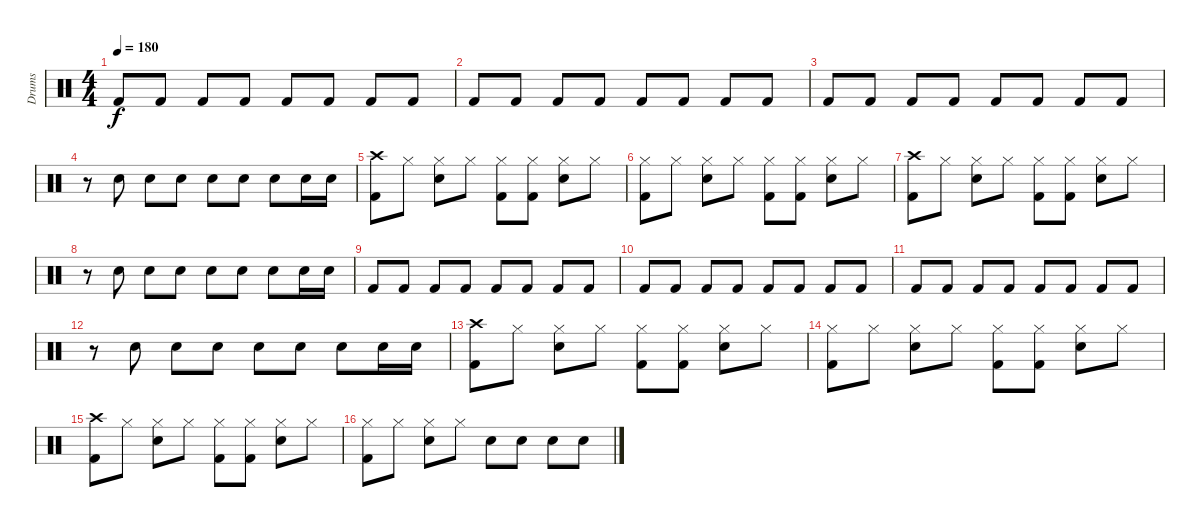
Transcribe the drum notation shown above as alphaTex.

\track ("Drums" "Drums") {instrument percussion}
\staff {score}
\articulation defaults
\ts (4 4)
\tempo 180
\clef neutral
\ks c "Kick (hit) 2".8{dy f} "Kick (hit) 2".8 "Kick (hit) 2".8 "Kick (hit) 2".8 "Kick (hit) 2".8 "Kick (hit) 2".8 "Kick (hit) 2".8 "Kick (hit) 2".8
|
"Kick (hit) 2".8 "Kick (hit) 2".8 "Kick (hit) 2".8 "Kick (hit) 2".8 "Kick (hit) 2".8 "Kick (hit) 2".8 "Kick (hit) 2".8 "Kick (hit) 2".8 |
"Kick (hit) 2".8 "Kick (hit) 2".8 "Kick (hit) 2".8 "Kick (hit) 2".8 "Kick (hit) 2".8 "Kick (hit) 2".8 "Kick (hit) 2".8 "Kick (hit) 2".8 |
r.8 "Snare (hit) 2".8 "Snare (hit) 2".8 "Snare (hit) 2".8 "Snare (hit) 2".8 "Snare (hit) 2".8 "Snare (hit) 2".8 "Snare (hit) 2".16 "Snare (hit) 2".16 |
("Crash high (hit)" "Kick (hit) 2").8 "Hi-Hat (closed)".8 ("Hi-Hat (closed)" "Snare (hit) 2").8 "Hi-Hat (closed)".8 ("Hi-Hat (closed)" "Kick (hit) 2").8 ("Hi-Hat (closed)" "Kick (hit) 2").8 ("Hi-Hat (closed)" "Snare (hit) 2").8 "Hi-Hat (closed)".8 |
("Hi-Hat (closed)" "Kick (hit) 2").8 "Hi-Hat (closed)".8 ("Hi-Hat (closed)" "Snare (hit) 2").8 "Hi-Hat (closed)".8 ("Hi-Hat (closed)" "Kick (hit) 2").8 ("Hi-Hat (closed)" "Kick (hit) 2").8 ("Hi-Hat (closed)" "Snare (hit) 2").8 "Hi-Hat (closed)".8 |
("Crash high (hit)" "Kick (hit) 2").8 "Hi-Hat (closed)".8 ("Hi-Hat (closed)" "Snare (hit) 2").8 "Hi-Hat (closed)".8 ("Hi-Hat (closed)" "Kick (hit) 2").8 ("Hi-Hat (closed)" "Kick (hit) 2").8 ("Hi-Hat (closed)" "Snare (hit) 2").8 "Hi-Hat (closed)".8 |
r.8 "Snare (hit) 2".8 "Snare (hit) 2".8 "Snare (hit) 2".8 "Snare (hit) 2".8 "Snare (hit) 2".8 "Snare (hit) 2".8 "Snare (hit) 2".16 "Snare (hit) 2".16 |
"Kick (hit) 2".8 "Kick (hit) 2".8 "Kick (hit) 2".8 "Kick (hit) 2".8 "Kick (hit) 2".8 "Kick (hit) 2".8 "Kick (hit) 2".8 "Kick (hit) 2".8 |
"Kick (hit) 2".8 "Kick (hit) 2".8 "Kick (hit) 2".8 "Kick (hit) 2".8 "Kick (hit) 2".8 "Kick (hit) 2".8 "Kick (hit) 2".8 "Kick (hit) 2".8 |
"Kick (hit) 2".8 "Kick (hit) 2".8 "Kick (hit) 2".8 "Kick (hit) 2".8 "Kick (hit) 2".8 "Kick (hit) 2".8 "Kick (hit) 2".8 "Kick (hit) 2".8 |
r.8 "Snare (hit) 2".8 "Snare (hit) 2".8 "Snare (hit) 2".8 "Snare (hit) 2".8 "Snare (hit) 2".8 "Snare (hit) 2".8 "Snare (hit) 2".16 "Snare (hit) 2".16 |
("Crash high (hit)" "Kick (hit) 2").8 "Hi-Hat (closed)".8 ("Hi-Hat (closed)" "Snare (hit) 2").8 "Hi-Hat (closed)".8 ("Hi-Hat (closed)" "Kick (hit) 2").8 ("Hi-Hat (closed)" "Kick (hit) 2").8 ("Hi-Hat (closed)" "Snare (hit) 2").8 "Hi-Hat (closed)".8 |
("Hi-Hat (closed)" "Kick (hit) 2").8 "Hi-Hat (closed)".8 ("Hi-Hat (closed)" "Snare (hit) 2").8 "Hi-Hat (closed)".8 ("Hi-Hat (closed)" "Kick (hit) 2").8 ("Hi-Hat (closed)" "Kick (hit) 2").8 ("Hi-Hat (closed)" "Snare (hit) 2").8 "Hi-Hat (closed)".8 |
("Crash high (hit)" "Kick (hit) 2").8 "Hi-Hat (closed)".8 ("Hi-Hat (closed)" "Snare (hit) 2").8 "Hi-Hat (closed)".8 ("Hi-Hat (closed)" "Kick (hit) 2").8 ("Hi-Hat (closed)" "Kick (hit) 2").8 ("Hi-Hat (closed)" "Snare (hit) 2").8 "Hi-Hat (closed)".8 |
("Hi-Hat (closed)" "Kick (hit) 2").8 "Hi-Hat (closed)".8 ("Hi-Hat (closed)" "Snare (hit) 2").8 "Hi-Hat (closed)".8 "Snare (hit) 2".8 "Snare (hit) 2".8 "Snare (hit) 2".8 "Snare (hit) 2".8
